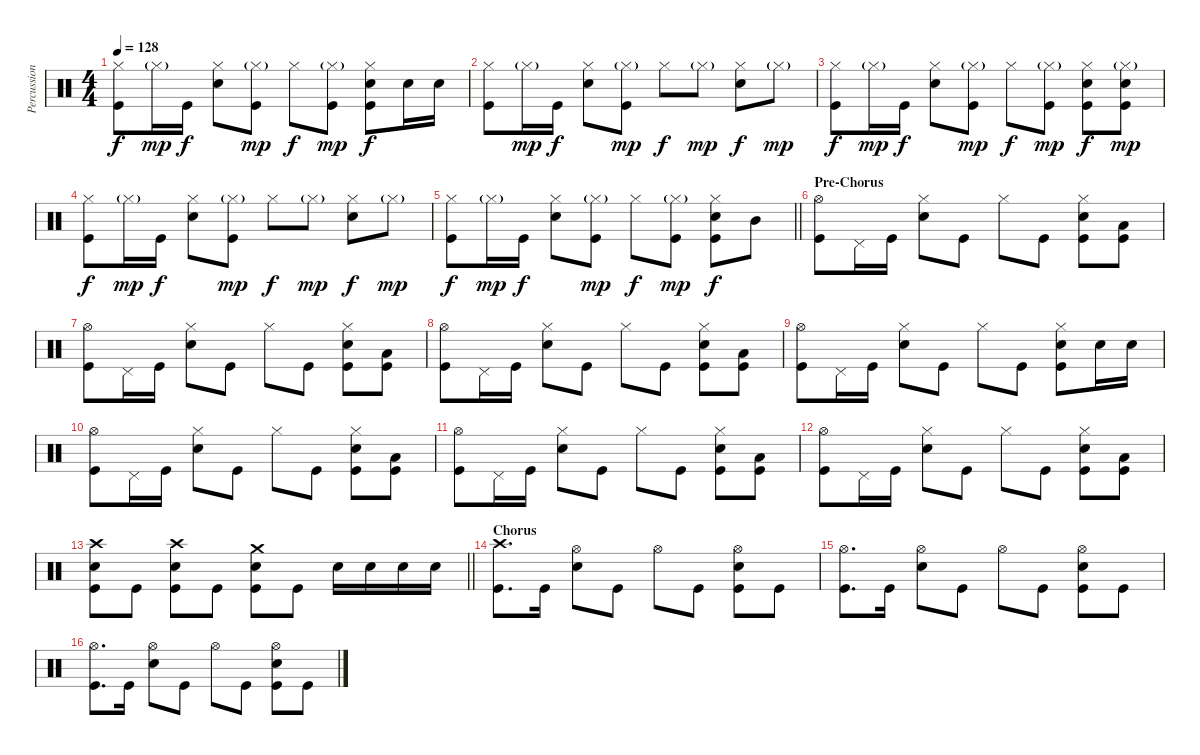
\track ("Percussion" "Percussion") {instrument percussion}
\staff {score}
\articulation defaults
\ts (4 4)
\tempo 128
\clef neutral
\ks c
("Hi-Hat (closed)" "Kick (hit)").8{dy f} "Hi-Hat (closed)"{g}.16{dy mp} "Kick (hit)".16{dy f} ("Hi-Hat (closed)" "Electric Snare (hit)").8 ("Hi-Hat (closed)"{g} "Kick (hit)").8{dy mp} "Hi-Hat (closed)".8{dy f} ("Hi-Hat (closed)"{g} "Kick (hit)").8{dy mp} ("Hi-Hat (closed)" "Electric Snare (hit)" "Kick (hit)").8{dy f} "Electric Snare (hit)".16 "Electric Snare (hit)".16 |
("Hi-Hat (closed)" "Kick (hit)").8 "Hi-Hat (closed)"{g}.16{dy mp} "Kick (hit)".16{dy f} ("Hi-Hat (closed)" "Electric Snare (hit)").8 ("Hi-Hat (closed)"{g} "Kick (hit)").8{dy mp} "Hi-Hat (closed)".8{dy f} "Hi-Hat (closed)"{g}.8{dy mp} ("Hi-Hat (closed)" "Electric Snare (hit)").8{dy f} "Hi-Hat (closed)"{g}.8{dy mp} |
("Hi-Hat (closed)" "Kick (hit)").8{dy f} "Hi-Hat (closed)"{g}.16{dy mp} "Kick (hit)".16{dy f} ("Hi-Hat (closed)" "Electric Snare (hit)").8 ("Hi-Hat (closed)"{g} "Kick (hit)").8{dy mp} "Hi-Hat (closed)".8{dy f} ("Hi-Hat (closed)"{g} "Kick (hit)").8{dy mp} ("Hi-Hat (closed)" "Electric Snare (hit)" "Kick (hit)").8{dy f} ("Hi-Hat (closed)"{g} "Electric Snare (hit)" "Kick (hit)").8{dy mp} |
("Hi-Hat (closed)" "Kick (hit)").8{dy f} "Hi-Hat (closed)"{g}.16{dy mp} "Kick (hit)".16{dy f} ("Hi-Hat (closed)" "Electric Snare (hit)").8 ("Hi-Hat (closed)"{g} "Kick (hit)").8{dy mp} "Hi-Hat (closed)".8{dy f} "Hi-Hat (closed)"{g}.8{dy mp} ("Hi-Hat (closed)" "Electric Snare (hit)").8{dy f} "Hi-Hat (closed)"{g}.8{dy mp} |
\barLineRight lightlight
("Hi-Hat (closed)" "Kick (hit)").8{dy f} "Hi-Hat (closed)"{g}.16{dy mp} "Kick (hit)".16{dy f} ("Hi-Hat (closed)" "Electric Snare (hit)").8 ("Hi-Hat (closed)"{g} "Kick (hit)").8{dy mp} "Hi-Hat (closed)".8{dy f} ("Hi-Hat (closed)"{g} "Kick (hit)").8{dy mp} ("Hi-Hat (closed)" "Electric Snare (hit)" "Kick (hit)").8{dy f} "Mid Tom (hit)".8 |
\section ("" "Pre-Chorus")
("Hi-Hat (open)" "Kick (hit)").8 "Pedal Hi-Hat (hit)".16 "Kick (hit)".16 ("Hi-Hat (closed)" "Electric Snare (hit)").8 "Kick (hit)".8 "Hi-Hat (closed)".8 "Kick (hit)".8 ("Hi-Hat (closed)" "Electric Snare (hit)" "Kick (hit)").8 ("Low Tom (hit)" "Kick (hit)").8 |
("Hi-Hat (open)" "Kick (hit)").8 "Pedal Hi-Hat (hit)".16 "Kick (hit)".16 ("Hi-Hat (closed)" "Electric Snare (hit)").8 "Kick (hit)".8 "Hi-Hat (closed)".8 "Kick (hit)".8 ("Hi-Hat (closed)" "Electric Snare (hit)" "Kick (hit)").8 ("Low Tom (hit)" "Kick (hit)").8 |
("Hi-Hat (open)" "Kick (hit)").8 "Pedal Hi-Hat (hit)".16 "Kick (hit)".16 ("Hi-Hat (closed)" "Electric Snare (hit)").8 "Kick (hit)".8 "Hi-Hat (closed)".8 "Kick (hit)".8 ("Hi-Hat (closed)" "Electric Snare (hit)" "Kick (hit)").8 ("Low Tom (hit)" "Kick (hit)").8 |
("Hi-Hat (open)" "Kick (hit)").8 "Pedal Hi-Hat (hit)".16 "Kick (hit)".16 ("Hi-Hat (closed)" "Electric Snare (hit)").8 "Kick (hit)".8 "Hi-Hat (closed)".8 "Kick (hit)".8 ("Hi-Hat (closed)" "Electric Snare (hit)" "Kick (hit)").8 "Electric Snare (hit)".16 "Electric Snare (hit)".16 |
("Hi-Hat (open)" "Kick (hit)").8 "Pedal Hi-Hat (hit)".16 "Kick (hit)".16 ("Hi-Hat (closed)" "Electric Snare (hit)").8 "Kick (hit)".8 "Hi-Hat (closed)".8 "Kick (hit)".8 ("Hi-Hat (closed)" "Electric Snare (hit)" "Kick (hit)").8 ("Low Tom (hit)" "Kick (hit)").8 |
("Hi-Hat (open)" "Kick (hit)").8 "Pedal Hi-Hat (hit)".16 "Kick (hit)".16 ("Hi-Hat (closed)" "Electric Snare (hit)").8 "Kick (hit)".8 "Hi-Hat (closed)".8 "Kick (hit)".8 ("Hi-Hat (closed)" "Electric Snare (hit)" "Kick (hit)").8 ("Low Tom (hit)" "Kick (hit)").8 |
("Hi-Hat (open)" "Kick (hit)").8 "Pedal Hi-Hat (hit)".16 "Kick (hit)".16 ("Hi-Hat (closed)" "Electric Snare (hit)").8 "Kick (hit)".8 "Hi-Hat (closed)".8 "Kick (hit)".8 ("Hi-Hat (closed)" "Electric Snare (hit)" "Kick (hit)").8 ("Low Tom (hit)" "Kick (hit)").8 |
\barLineRight lightlight
("Crash high (hit)" "Electric Snare (hit)" "Kick (hit)").8 "Kick (hit)".8 ("Crash high (hit)" "Electric Snare (hit)" "Kick (hit)").8 "Kick (hit)".8 ("Crash medium (hit)" "Electric Snare (hit)" "Kick (hit)").8 "Kick (hit)".8 "Electric Snare (hit)".16 "Electric Snare (hit)".16 "Electric Snare (hit)".16 "Electric Snare (hit)".16 |
\section ("" "Chorus")
("Crash high (hit)" "Kick (hit)").8{d} "Kick (hit)".16 ("Hi-Hat (open)" "Electric Snare (hit)").8 "Kick (hit)".8 "Hi-Hat (open)".8 "Kick (hit)".8 ("Hi-Hat (open)" "Electric Snare (hit)" "Kick (hit)").8 "Kick (hit)".8 |
("Hi-Hat (open)" "Kick (hit)").8{d} "Kick (hit)".16 ("Hi-Hat (open)" "Electric Snare (hit)").8 "Kick (hit)".8 "Hi-Hat (open)".8 "Kick (hit)".8 ("Hi-Hat (open)" "Electric Snare (hit)" "Kick (hit)").8 "Kick (hit)".8 |
("Hi-Hat (open)" "Kick (hit)").8{d} "Kick (hit)".16 ("Hi-Hat (open)" "Electric Snare (hit)").8 "Kick (hit)".8 "Hi-Hat (open)".8 "Kick (hit)".8 ("Hi-Hat (open)" "Electric Snare (hit)" "Kick (hit)").8 "Kick (hit)".8
